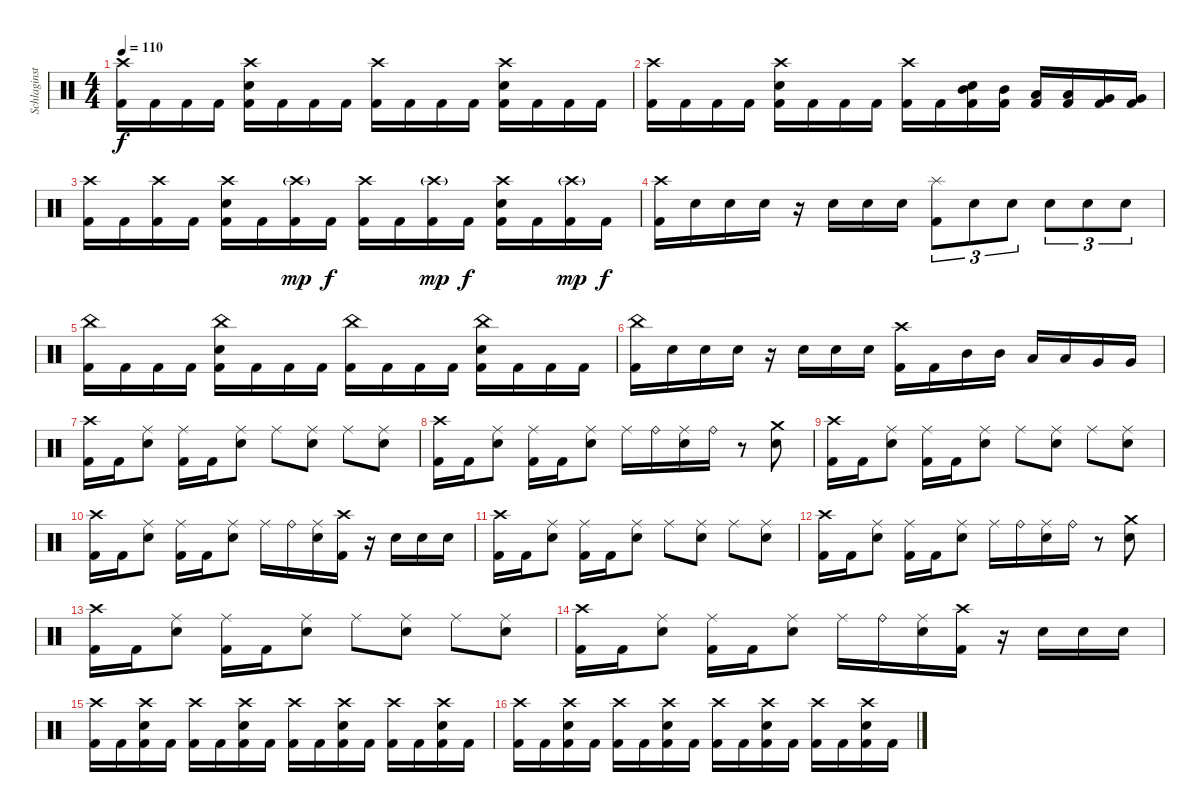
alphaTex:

\track ("Schlaginstrumente - Auswahl" "Schlaginst") {instrument percussion}
\staff {score}
\articulation defaults
\ts (4 4)
\tempo 110
\clef neutral
\ks c
("Crash high (hit)" "Kick (hit) 2").16{dy f} "Kick (hit) 2".16 "Kick (hit) 2".16 "Kick (hit) 2".16 ("Crash high (hit)" "Snare (hit) 2" "Kick (hit) 2").16 "Kick (hit) 2".16 "Kick (hit) 2".16 "Kick (hit) 2".16 ("Crash high (hit)" "Kick (hit) 2").16 "Kick (hit) 2".16 "Kick (hit) 2".16 "Kick (hit) 2".16 ("Crash high (hit)" "Snare (hit) 2" "Kick (hit) 2").16 "Kick (hit) 2".16 "Kick (hit) 2".16 "Kick (hit) 2".16 |
("Crash high (hit)" "Kick (hit) 2").16 "Kick (hit) 2".16 "Kick (hit) 2".16 "Kick (hit) 2".16 ("Crash high (hit)" "Snare (hit) 2" "Kick (hit) 2").16 "Kick (hit) 2".16 "Kick (hit) 2".16 "Kick (hit) 2".16 ("Crash high (hit)" "Kick (hit) 2").16 "Kick (hit) 2".16 ("Mid Tom (hit)" "Snare (hit) 2" "Kick (hit) 2").16 ("Mid Tom (hit)" "Kick (hit) 2").16 ("Low Tom (hit)" "Kick (hit) 2").16 ("Low Tom (hit)" "Kick (hit) 2").16 ("Very Low Tom (hit)" "Kick (hit) 2").16 ("Very Low Tom (hit)" "Kick (hit) 2").16 |
("Crash high (hit)" "Kick (hit) 2").16 "Kick (hit) 2".16 ("Crash high (hit)" "Kick (hit) 2").16 "Kick (hit) 2".16 ("Crash high (hit)" "Snare (hit) 2" "Kick (hit) 2").16 "Kick (hit) 2".16 ("Crash high (hit)"{g} "Kick (hit) 2").16{dy mp} "Kick (hit) 2".16{dy f} ("Crash high (hit)" "Kick (hit) 2").16 "Kick (hit) 2".16 ("Crash high (hit)"{g} "Kick (hit) 2").16{dy mp} "Kick (hit) 2".16{dy f} ("Crash high (hit)" "Snare (hit) 2" "Kick (hit) 2").16 "Kick (hit) 2".16 ("Crash high (hit)"{g} "Kick (hit) 2").16{dy mp} "Kick (hit) 2".16{dy f} |
("Crash high (hit)" "Kick (hit) 2").16 "Snare (hit) 2".16 "Snare (hit) 2".16 "Snare (hit) 2".16 r.16 "Snare (hit) 2".16 "Snare (hit) 2".16 "Snare (hit) 2".16 ("Splash (hit)" "Kick (hit) 2").8{tu (3 2)} "Snare (hit) 2".8{tu (3 2)} "Snare (hit) 2".8{tu (3 2)} "Snare (hit) 2".8{tu (3 2)} "Snare (hit) 2".8{tu (3 2)} "Snare (hit) 2".8{tu (3 2)} |
("China (hit)" "Kick (hit) 2").16 "Kick (hit) 2".16 "Kick (hit) 2".16 "Kick (hit) 2".16 ("China (hit)" "Snare (hit) 2" "Kick (hit) 2").16 "Kick (hit) 2".16 "Kick (hit) 2".16 "Kick (hit) 2".16 ("China (hit)" "Kick (hit) 2").16 "Kick (hit) 2".16 "Kick (hit) 2".16 "Kick (hit) 2".16 ("China (hit)" "Snare (hit) 2" "Kick (hit) 2").16 "Kick (hit) 2".16 "Kick (hit) 2".16 "Kick (hit) 2".16 |
("China (hit)" "Kick (hit) 2").16 "Snare (hit) 2".16 "Snare (hit) 2".16 "Snare (hit) 2".16 r.16 "Snare (hit) 2".16 "Snare (hit) 2".16 "Snare (hit) 2".16 ("Crash high (hit)" "Kick (hit) 2").16 "Kick (hit) 2".16 "Mid Tom (hit)".16 "Mid Tom (hit)".16 "Low Tom (hit)".16 "Low Tom (hit)".16 "Very Low Tom (hit)".16 "Very Low Tom (hit)".16 |
("Crash high (hit)" "Kick (hit) 2").16 "Kick (hit) 2".16 ("Ride (middle)" "Snare (hit) 2").8 ("Ride (middle)" "Kick (hit) 2").16 "Kick (hit) 2".16 ("Ride (middle)" "Snare (hit) 2").8 "Ride (middle)".8 ("Ride (middle)" "Snare (hit) 2").8 "Ride (middle)".8 ("Ride (middle)" "Snare (hit) 2").8 |
("Crash high (hit)" "Kick (hit) 2").16 "Kick (hit) 2".16 ("Ride (middle)" "Snare (hit) 2").8 ("Ride (middle)" "Kick (hit) 2").16 "Kick (hit) 2".16 ("Ride (middle)" "Snare (hit) 2").8 "Ride (middle)".16 "Ride (bell)".16 ("Ride (middle)" "Snare (hit) 2").16 "Ride (bell)".16 r.8 ("Crash medium (hit)" "Snare (hit) 2").8 |
("Crash high (hit)" "Kick (hit) 2").16 "Kick (hit) 2".16 ("Ride (middle)" "Snare (hit) 2").8 ("Ride (middle)" "Kick (hit) 2").16 "Kick (hit) 2".16 ("Ride (middle)" "Snare (hit) 2").8 "Ride (middle)".8 ("Ride (middle)" "Snare (hit) 2").8 "Ride (middle)".8 ("Ride (middle)" "Snare (hit) 2").8 |
("Crash high (hit)" "Kick (hit) 2").16 "Kick (hit) 2".16 ("Ride (middle)" "Snare (hit) 2").8 ("Ride (middle)" "Kick (hit) 2").16 "Kick (hit) 2".16 ("Ride (middle)" "Snare (hit) 2").8 "Ride (middle)".16 "Ride (bell)".16 ("Ride (middle)" "Snare (hit) 2").16 ("Crash high (hit)" "Kick (hit) 2").16 r.16 "Snare (hit) 2".16 "Snare (hit) 2".16 "Snare (hit) 2".16 |
("Crash high (hit)" "Kick (hit) 2").16 "Kick (hit) 2".16 ("Ride (middle)" "Snare (hit) 2").8 ("Ride (middle)" "Kick (hit) 2").16 "Kick (hit) 2".16 ("Ride (middle)" "Snare (hit) 2").8 "Ride (middle)".8 ("Ride (middle)" "Snare (hit) 2").8 "Ride (middle)".8 ("Ride (middle)" "Snare (hit) 2").8 |
("Crash high (hit)" "Kick (hit) 2").16 "Kick (hit) 2".16 ("Ride (middle)" "Snare (hit) 2").8 ("Ride (middle)" "Kick (hit) 2").16 "Kick (hit) 2".16 ("Ride (middle)" "Snare (hit) 2").8 "Ride (middle)".16 "Ride (bell)".16 ("Ride (middle)" "Snare (hit) 2").16 "Ride (bell)".16 r.8 ("Crash medium (hit)" "Snare (hit) 2").8 |
("Crash high (hit)" "Kick (hit) 2").16 "Kick (hit) 2".16 ("Ride (middle)" "Snare (hit) 2").8 ("Ride (middle)" "Kick (hit) 2").16 "Kick (hit) 2".16 ("Ride (middle)" "Snare (hit) 2").8 "Ride (middle)".8 ("Ride (middle)" "Snare (hit) 2").8 "Ride (middle)".8 ("Ride (middle)" "Snare (hit) 2").8 |
("Crash high (hit)" "Kick (hit) 2").16 "Kick (hit) 2".16 ("Ride (middle)" "Snare (hit) 2").8 ("Ride (middle)" "Kick (hit) 2").16 "Kick (hit) 2".16 ("Ride (middle)" "Snare (hit) 2").8 "Ride (middle)".16 "Ride (bell)".16 ("Ride (middle)" "Snare (hit) 2").16 ("Crash high (hit)" "Kick (hit) 2").16 r.16 "Snare (hit) 2".16 "Snare (hit) 2".16 "Snare (hit) 2".16 |
("Crash high (hit)" "Kick (hit) 2").16 "Kick (hit) 2".16 ("Crash high (hit)" "Snare (hit) 2" "Kick (hit) 2").16 "Kick (hit) 2".16 ("Crash high (hit)" "Kick (hit) 2").16 "Kick (hit) 2".16 ("Crash high (hit)" "Snare (hit) 2" "Kick (hit) 2").16 "Kick (hit) 2".16 ("Crash high (hit)" "Kick (hit) 2").16 "Kick (hit) 2".16 ("Crash high (hit)" "Snare (hit) 2" "Kick (hit) 2").16 "Kick (hit) 2".16 ("Crash high (hit)" "Kick (hit) 2").16 "Kick (hit) 2".16 ("Crash high (hit)" "Snare (hit) 2" "Kick (hit) 2").16 "Kick (hit) 2".16 |
("Crash high (hit)" "Kick (hit) 2").16 "Kick (hit) 2".16 ("Crash high (hit)" "Snare (hit) 2" "Kick (hit) 2").16 "Kick (hit) 2".16 ("Crash high (hit)" "Kick (hit) 2").16 "Kick (hit) 2".16 ("Crash high (hit)" "Snare (hit) 2" "Kick (hit) 2").16 "Kick (hit) 2".16 ("Crash high (hit)" "Kick (hit) 2").16 "Kick (hit) 2".16 ("Crash high (hit)" "Snare (hit) 2" "Kick (hit) 2").16 "Kick (hit) 2".16 ("Crash high (hit)" "Kick (hit) 2").16 "Kick (hit) 2".16 ("Crash high (hit)" "Snare (hit) 2" "Kick (hit) 2").16 "Kick (hit) 2".16
